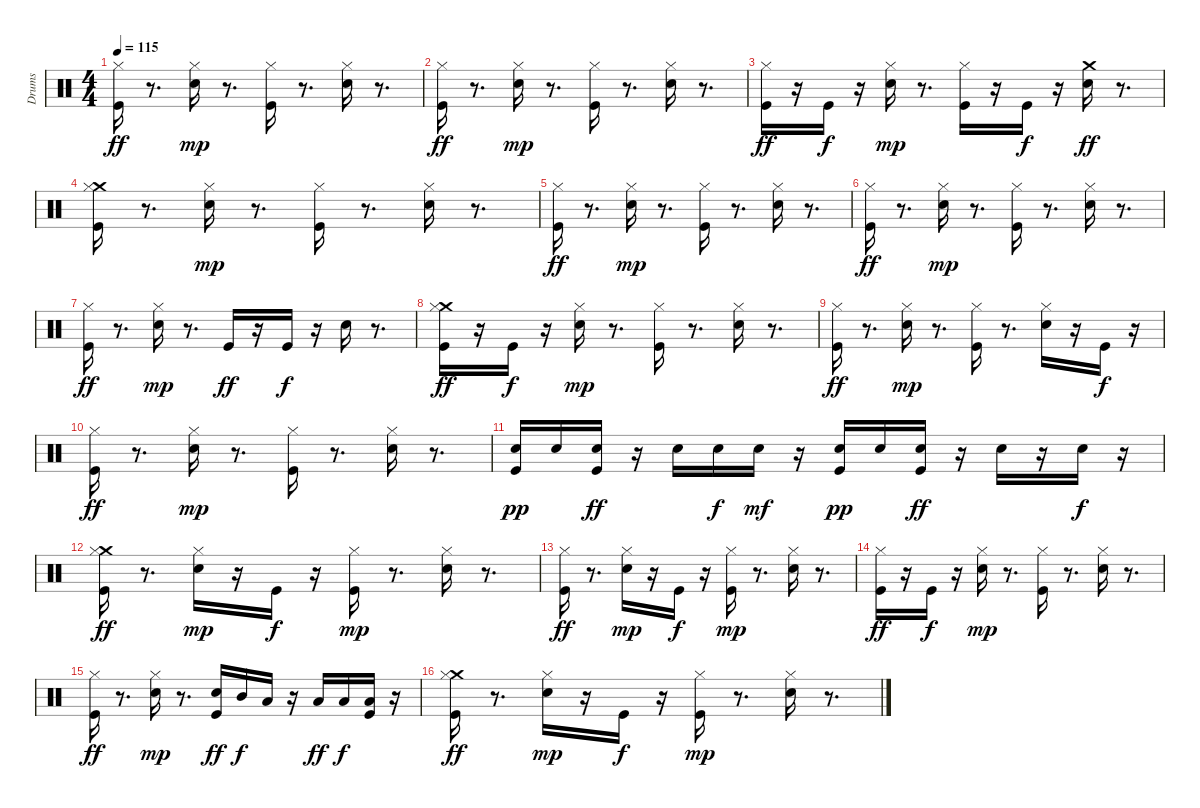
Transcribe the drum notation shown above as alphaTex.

\track ("Drums" "Drums") {instrument percussion}
\staff {score}
\articulation defaults
\ts (4 4)
\tempo 115
\clef neutral
\ks c
("Kick (hit)" "Hi-Hat (closed)").16{dy ff} r.8{d} ("Electric Snare (hit)" "Hi-Hat (closed)").16{dy mp} r.8{d} ("Kick (hit)" "Hi-Hat (closed)").16 r.8{d} ("Electric Snare (hit)" "Hi-Hat (closed)").16 r.8{d} |
("Kick (hit)" "Hi-Hat (closed)").16{dy ff} r.8{d} ("Electric Snare (hit)" "Hi-Hat (closed)").16{dy mp} r.8{d} ("Kick (hit)" "Hi-Hat (closed)").16 r.8{d} ("Electric Snare (hit)" "Hi-Hat (closed)").16 r.8{d} |
("Kick (hit)" "Hi-Hat (closed)").16{dy ff} r.16 "Kick (hit)".16{dy f} r.16 ("Electric Snare (hit)" "Hi-Hat (closed)").16{dy mp} r.8{d} ("Kick (hit)" "Hi-Hat (closed)").16 r.16 "Kick (hit)".16{dy f} r.16 ("Electric Snare (hit)" "Crash medium (hit)").16{dy ff} r.8{d} |
("Crash medium (hit)" "Kick (hit)" "Hi-Hat (closed)").16 r.8{d} ("Electric Snare (hit)" "Hi-Hat (closed)").16{dy mp} r.8{d} ("Kick (hit)" "Hi-Hat (closed)").16 r.8{d} ("Electric Snare (hit)" "Hi-Hat (closed)").16 r.8{d} |
("Kick (hit)" "Hi-Hat (closed)").16{dy ff} r.8{d} ("Electric Snare (hit)" "Hi-Hat (closed)").16{dy mp} r.8{d} ("Kick (hit)" "Hi-Hat (closed)").16 r.8{d} ("Electric Snare (hit)" "Hi-Hat (closed)").16 r.8{d} |
("Kick (hit)" "Hi-Hat (closed)").16{dy ff} r.8{d} ("Electric Snare (hit)" "Hi-Hat (closed)").16{dy mp} r.8{d} ("Kick (hit)" "Hi-Hat (closed)").16 r.8{d} ("Electric Snare (hit)" "Hi-Hat (closed)").16 r.8{d} |
("Kick (hit)" "Hi-Hat (closed)").16{dy ff} r.8{d} ("Electric Snare (hit)" "Hi-Hat (closed)").16{dy mp} r.8{d} "Kick (hit)".16{dy ff} r.16 "Kick (hit)".16{dy f} r.16 "Electric Snare (hit)".16 r.8{d} |
("Crash medium (hit)" "Kick (hit)" "Hi-Hat (closed)").16{dy ff} r.16 "Kick (hit)".16{dy f} r.16 ("Electric Snare (hit)" "Hi-Hat (closed)").16{dy mp} r.8{d} ("Kick (hit)" "Hi-Hat (closed)").16 r.8{d} ("Electric Snare (hit)" "Hi-Hat (closed)").16 r.8{d} |
("Kick (hit)" "Hi-Hat (closed)").16{dy ff} r.8{d} ("Electric Snare (hit)" "Hi-Hat (closed)").16{dy mp} r.8{d} ("Kick (hit)" "Hi-Hat (closed)").16 r.8{d} ("Electric Snare (hit)" "Hi-Hat (closed)").16 r.16 "Kick (hit)".16{dy f} r.16 |
("Kick (hit)" "Hi-Hat (closed)").16{dy ff} r.8{d} ("Electric Snare (hit)" "Hi-Hat (closed)").16{dy mp} r.8{d} ("Kick (hit)" "Hi-Hat (closed)").16 r.8{d} ("Electric Snare (hit)" "Hi-Hat (closed)").16 r.8{d} |
("Kick (hit)" "Electric Snare (hit)").16{dy pp} "Electric Snare (hit)".16 ("Kick (hit)" "Electric Snare (hit)").16{dy ff} r.16 "Electric Snare (hit)".16 "Electric Snare (hit)".16{dy f} "Electric Snare (hit)".16{dy mf} r.16 ("Kick (hit)" "Electric Snare (hit)").16{dy pp} "Electric Snare (hit)".16 ("Kick (hit)" "Electric Snare (hit)").16{dy ff} r.16 "Electric Snare (hit)".16 r.16 "Electric Snare (hit)".16{dy f} r.16 |
("Crash medium (hit)" "Kick (hit)" "Hi-Hat (closed)").16{dy ff} r.8{d} ("Electric Snare (hit)" "Hi-Hat (closed)").16{dy mp} r.16 "Kick (hit)".16{dy f} r.16 ("Kick (hit)" "Hi-Hat (closed)").16{dy mp} r.8{d} ("Electric Snare (hit)" "Hi-Hat (closed)").16 r.8{d} |
("Kick (hit)" "Hi-Hat (closed)").16{dy ff} r.8{d} ("Electric Snare (hit)" "Hi-Hat (closed)").16{dy mp} r.16 "Kick (hit)".16{dy f} r.16 ("Kick (hit)" "Hi-Hat (closed)").16{dy mp} r.8{d} ("Electric Snare (hit)" "Hi-Hat (closed)").16 r.8{d} |
("Kick (hit)" "Hi-Hat (closed)").16{dy ff} r.16 "Kick (hit)".16{dy f} r.16 ("Electric Snare (hit)" "Hi-Hat (closed)").16{dy mp} r.8{d} ("Kick (hit)" "Hi-Hat (closed)").16 r.8{d} ("Electric Snare (hit)" "Hi-Hat (closed)").16 r.8{d} |
("Kick (hit)" "Hi-Hat (closed)").16{dy ff} r.8{d} ("Electric Snare (hit)" "Hi-Hat (closed)").16{dy mp} r.8{d} ("Kick (hit)" "Electric Snare (hit)").16{dy ff} "Mid Tom (hit)".16{dy f} "Low Tom (hit)".16 r.16 "Low Tom (hit)".16{dy ff} "Low Floor Tom (hit)".16{dy f} ("Kick (hit)" "Low Floor Tom (hit)").16 r.16 |
("Crash medium (hit)" "Kick (hit)" "Hi-Hat (closed)").16{dy ff} r.8{d} ("Electric Snare (hit)" "Hi-Hat (closed)").16{dy mp} r.16 "Kick (hit)".16{dy f} r.16 ("Kick (hit)" "Hi-Hat (closed)").16{dy mp} r.8{d} ("Electric Snare (hit)" "Hi-Hat (closed)").16 r.8{d}
